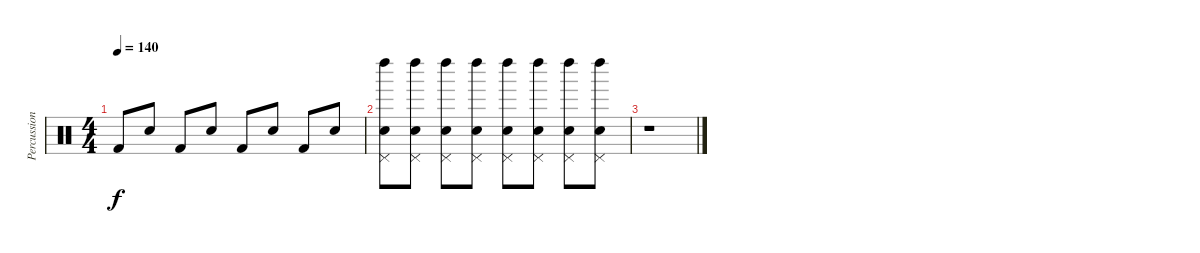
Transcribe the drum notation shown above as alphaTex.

\track ("Percussions" "Percussion") {instrument percussion}
\staff {score}
\articulation defaults
\ts (4 4)
\tempo 140
\clef neutral
\ks c "Kick (hit) 2".8{dy f} "Electric Snare (hit)".8 "Kick (hit) 2".8 "Electric Snare (hit)".8 "Kick (hit) 2".8 "Electric Snare (hit)".8 "Kick (hit) 2".8 "Electric Snare (hit)".8
|
("Pedal Hi-Hat (hit)" "Left Maraca (hit)" "Electric Snare (hit)").8 ("Pedal Hi-Hat (hit)" "Left Maraca (hit)" "Electric Snare (hit)").8 ("Pedal Hi-Hat (hit)" "Left Maraca (hit)" "Electric Snare (hit)").8 ("Pedal Hi-Hat (hit)" "Left Maraca (hit)" "Electric Snare (hit)").8 ("Pedal Hi-Hat (hit)" "Left Maraca (hit)" "Electric Snare (hit)").8 ("Pedal Hi-Hat (hit)" "Left Maraca (hit)" "Electric Snare (hit)").8 ("Pedal Hi-Hat (hit)" "Left Maraca (hit)" "Electric Snare (hit)").8 ("Pedal Hi-Hat (hit)" "Left Maraca (hit)" "Electric Snare (hit)").8 |
r.1
